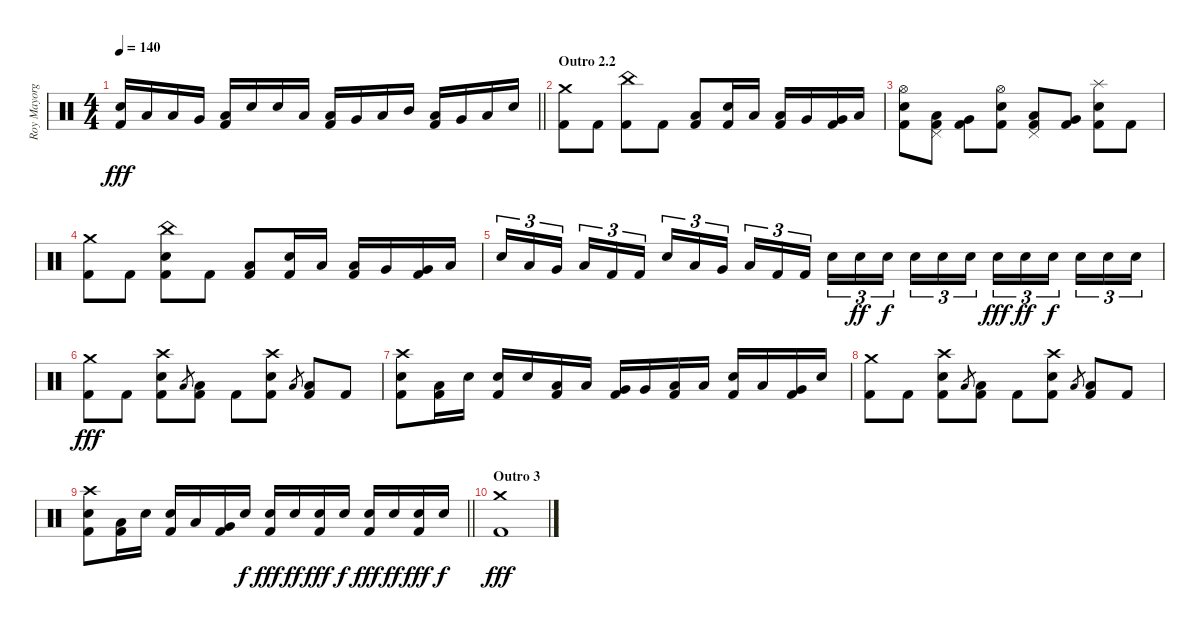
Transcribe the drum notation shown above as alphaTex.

\track ("Roy Mayorga" "Roy Mayorg") {instrument percussion}
\staff {score}
\articulation defaults
\ts (4 4)
\tempo 140
\clef neutral
\barLineRight lightlight
\ks c
("Electric Snare (hit)" "Kick (hit) 2").16{dy fff} "Low Tom (hit)".16 "Low Tom (hit)".16 "Very Low Tom (hit)".16 ("Low Floor Tom (hit)" "Kick (hit) 2").16 "Electric Snare (hit)".16 "Electric Snare (hit)".16 "Low Tom (hit)".16 ("Low Tom (hit)" "Kick (hit) 2").16 "Very Low Tom (hit)".16 "Low Floor Tom (hit)".16 "Mid Tom (hit)".16 ("Low Tom (hit)" "Kick (hit) 2").16 "Very Low Tom (hit)".16 "Low Floor Tom (hit)".16 "Electric Snare (hit)".16 |
\section ("" "Outro 2.2")
("Crash medium (hit)" "Kick (hit) 2").8 "Kick (hit) 2".8 ("China (hit)" "Kick (hit) 2").8 "Kick (hit) 2".8 ("Low Tom (hit)" "Kick (hit) 2").8 ("Electric Snare (hit)" "Kick (hit) 2").16 "Low Tom (hit)".16 ("Low Tom (hit)" "Kick (hit) 2").16 "Very Low Tom (hit)".16 ("Very Low Tom (hit)" "Kick (hit) 2").16 "Low Floor Tom (hit)".16 |
("Hi-Hat (open)" "Electric Snare (hit)" "Kick (hit) 2").8 ("Low Tom (hit)" "Pedal Hi-Hat (hit)" "Kick (hit) 2").8 ("Very Low Tom (hit)" "Kick (hit) 2").8 ("Hi-Hat (open)" "Electric Snare (hit)" "Kick (hit) 2").8 ("Low Tom (hit)" "Pedal Hi-Hat (hit)" "Kick (hit) 2").8 ("Very Low Tom (hit)" "Kick (hit) 2").8 ("Splash (hit)" "Electric Snare (hit)" "Kick (hit) 2").8 "Kick (hit) 2".8 |
("Crash medium (hit)" "Kick (hit) 2").8 "Kick (hit) 2".8 ("China (hit)" "Electric Snare (hit)" "Kick (hit) 2").8 "Kick (hit) 2".8 ("Low Tom (hit)" "Kick (hit) 2").8 ("Electric Snare (hit)" "Kick (hit) 2").16 "Low Tom (hit)".16 ("Low Tom (hit)" "Kick (hit) 2").16 "Very Low Tom (hit)".16 ("Very Low Tom (hit)" "Kick (hit) 2").16 "Low Floor Tom (hit)".16 |
"Electric Snare (hit)".16{tu (3 2)} "Low Tom (hit)".16{tu (3 2)} "Very Low Tom (hit)".16{tu (3 2) beam splitsecondary} "Low Floor Tom (hit)".16{tu (3 2)} "Kick (hit) 2".16{tu (3 2)} "Kick (hit) 2".16{tu (3 2)} "Electric Snare (hit)".16{tu (3 2)} "Low Tom (hit)".16{tu (3 2)} "Very Low Tom (hit)".16{tu (3 2) beam splitsecondary} "Low Floor Tom (hit)".16{tu (3 2)} "Kick (hit) 2".16{tu (3 2)} "Kick (hit) 2".16{tu (3 2)} "Electric Snare (hit)".16{tu (3 2)} "Electric Snare (hit)".16{tu (3 2) dy ff} "Electric Snare (hit)".16{tu (3 2) dy f beam splitsecondary} "Electric Snare (hit)".16{tu (3 2)} "Electric Snare (hit)".16{tu (3 2)} "Electric Snare (hit)".16{tu (3 2)} "Electric Snare (hit)".16{tu (3 2) dy fff} "Electric Snare (hit)".16{tu (3 2) dy ff} "Electric Snare (hit)".16{tu (3 2) dy f beam splitsecondary} "Electric Snare (hit)".16{tu (3 2)} "Electric Snare (hit)".16{tu (3 2)} "Electric Snare (hit)".16{tu (3 2)} |
("Crash medium (hit)" "Kick (hit) 2").8{dy fff} "Kick (hit) 2".8 ("Crash high (hit)" "Electric Snare (hit)" "Kick (hit) 2").8 "Low Tom (hit)".8{gr} ("Low Tom (hit)" "Kick (hit) 2").8 "Kick (hit) 2".8 ("Crash high (hit)" "Electric Snare (hit)" "Kick (hit) 2").8 "Low Tom (hit)".8{gr} ("Low Tom (hit)" "Kick (hit) 2").8 "Kick (hit) 2".8 |
("Crash high (hit)" "Electric Snare (hit)" "Kick (hit) 2").8 ("Low Tom (hit)" "Kick (hit) 2").16 "Electric Snare (hit)".16 ("Electric Snare (hit)" "Kick (hit) 2").16 "Electric Snare (hit)".16 ("Low Tom (hit)" "Kick (hit) 2").16 "Low Tom (hit)".16 ("Very Low Tom (hit)" "Kick (hit) 2").16 "Very Low Tom (hit)".16 ("Low Floor Tom (hit)" "Kick (hit) 2").16 "Low Floor Tom (hit)".16 ("Electric Snare (hit)" "Kick (hit) 2").16 "Low Tom (hit)".16 ("Very Low Tom (hit)" "Kick (hit) 2").16 "Electric Snare (hit)".16 |
("Crash medium (hit)" "Kick (hit) 2").8 "Kick (hit) 2".8 ("Crash high (hit)" "Electric Snare (hit)" "Kick (hit) 2").8 "Low Tom (hit)".8{gr} ("Low Tom (hit)" "Kick (hit) 2").8 "Kick (hit) 2".8 ("Crash high (hit)" "Electric Snare (hit)" "Kick (hit) 2").8 "Low Tom (hit)".8{gr} ("Low Tom (hit)" "Kick (hit) 2").8 "Kick (hit) 2".8 |
\barLineRight lightlight
("Crash high (hit)" "Electric Snare (hit)" "Kick (hit) 2").8 ("Low Tom (hit)" "Kick (hit) 2").16 "Electric Snare (hit)".16 ("Electric Snare (hit)" "Kick (hit) 2").16 "Low Tom (hit)".16 ("Very Low Tom (hit)" "Kick (hit) 2").16 "Electric Snare (hit)".16{dy f} ("Electric Snare (hit)" "Kick (hit) 2").16{dy fff} "Electric Snare (hit)".16{dy ff} ("Electric Snare (hit)" "Kick (hit) 2").16{dy fff} "Electric Snare (hit)".16{dy f} ("Electric Snare (hit)" "Kick (hit) 2").16{dy fff} "Electric Snare (hit)".16{dy ff} ("Electric Snare (hit)" "Kick (hit) 2").16{dy fff} "Electric Snare (hit)".16{dy f} |
\section ("" "Outro 3")
("Crash medium (hit)" "Kick (hit) 2").1{dy fff}
